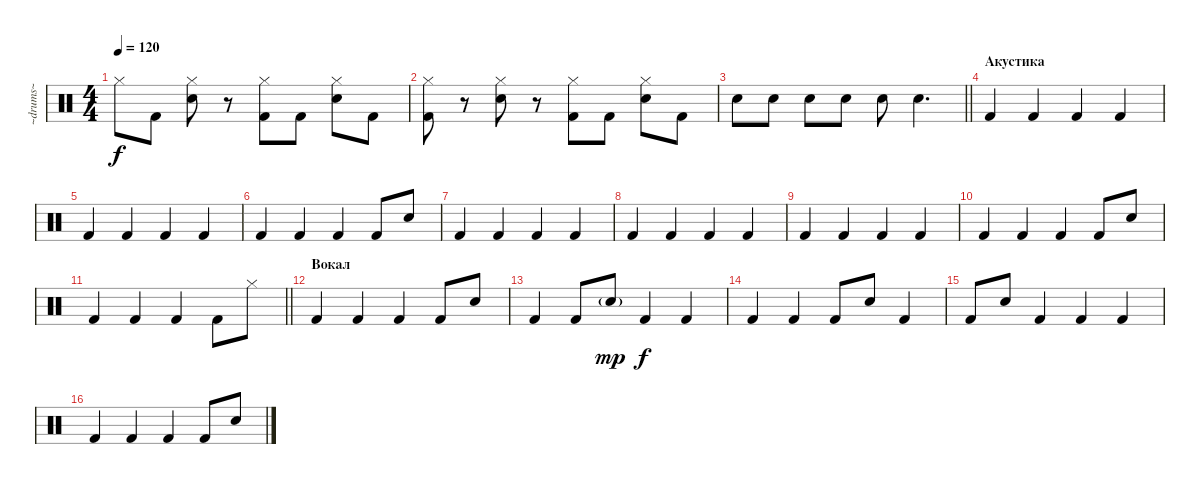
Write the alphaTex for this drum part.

\track ("~drums~" "~drums~") {instrument percussion}
\staff {score}
\articulation defaults
\ts (4 4)
\tempo 120
\clef neutral
\ks c "Hi-Hat (closed)".8{dy f} "Kick (hit) 2".8
("Hi-Hat (closed)" "Snare (hit) 2").8 r.8 ("Hi-Hat (closed)" "Kick (hit) 2").8 "Kick (hit) 2".8 ("Hi-Hat (closed)" "Snare (hit) 2").8 "Kick (hit) 2".8 |
("Hi-Hat (closed)" "Kick (hit) 2").8 r.8 ("Hi-Hat (closed)" "Snare (hit) 2").8 r.8 ("Hi-Hat (closed)" "Kick (hit) 2").8 "Kick (hit) 2".8 ("Hi-Hat (closed)" "Snare (hit) 2").8 "Kick (hit) 2".8 |
\barLineRight lightlight "Snare (hit) 2".8 "Snare (hit) 2".8 "Snare (hit) 2".8 "Snare (hit) 2".8 "Snare (hit) 2".8 "Snare (hit) 2".4{d}
|
\section ("" "Акустика")
"Kick (hit) 2".4 "Kick (hit) 2".4 "Kick (hit) 2".4 "Kick (hit) 2".4 |
"Kick (hit) 2".4 "Kick (hit) 2".4 "Kick (hit) 2".4 "Kick (hit) 2".4 |
"Kick (hit) 2".4 "Kick (hit) 2".4 "Kick (hit) 2".4 "Kick (hit) 2".8 "Hand Clap (hit)".8 |
"Kick (hit) 2".4 "Kick (hit) 2".4 "Kick (hit) 2".4 "Kick (hit) 2".4 |
"Kick (hit) 2".4 "Kick (hit) 2".4 "Kick (hit) 2".4 "Kick (hit) 2".4 |
"Kick (hit) 2".4 "Kick (hit) 2".4 "Kick (hit) 2".4 "Kick (hit) 2".4 |
"Kick (hit) 2".4 "Kick (hit) 2".4 "Kick (hit) 2".4 "Kick (hit) 2".8 "Hand Clap (hit)".8 |
\barLineRight lightlight "Kick (hit) 2".4 "Kick (hit) 2".4 "Kick (hit) 2".4 "Kick (hit) 2".8 "Hi-Hat (closed)".8
|
\section ("" "Вокал")
"Kick (hit) 2".4 "Kick (hit) 2".4 "Kick (hit) 2".4 "Kick (hit) 2".8 "Hand Clap (hit)".8 |
"Kick (hit) 2".4 "Kick (hit) 2".8 "Hand Clap (hit)"{g}.8{dy mp} "Kick (hit) 2".4{dy f} "Kick (hit) 2".4 |
"Kick (hit) 2".4 "Kick (hit) 2".4 "Kick (hit) 2".8 "Hand Clap (hit)".8 "Kick (hit) 2".4 |
"Kick (hit) 2".8 "Hand Clap (hit)".8 "Kick (hit) 2".4 "Kick (hit) 2".4 "Kick (hit) 2".4 |
"Kick (hit) 2".4 "Kick (hit) 2".4 "Kick (hit) 2".4 "Kick (hit) 2".8 "Hand Clap (hit)".8
